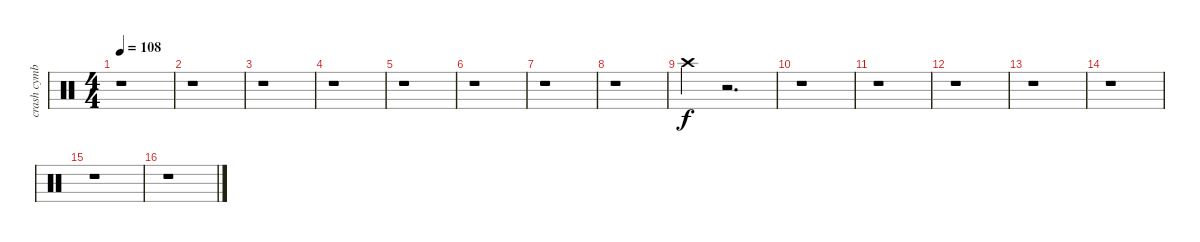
\track ("crash cymbal        " "crash cymb") {instrument percussion}
\staff {score}
\articulation defaults
\ts (4 4)
\tempo 108
\clef neutral
\ks c
r.1{dy f} |
r.1 |
r.1 |
r.1 |
r.1 |
r.1 |
r.1 |
r.1 |
"Crash high (hit)".4 r.2{d} |
r.1 |
r.1 |
r.1 |
r.1 |
r.1 |
r.1 |
r.1
